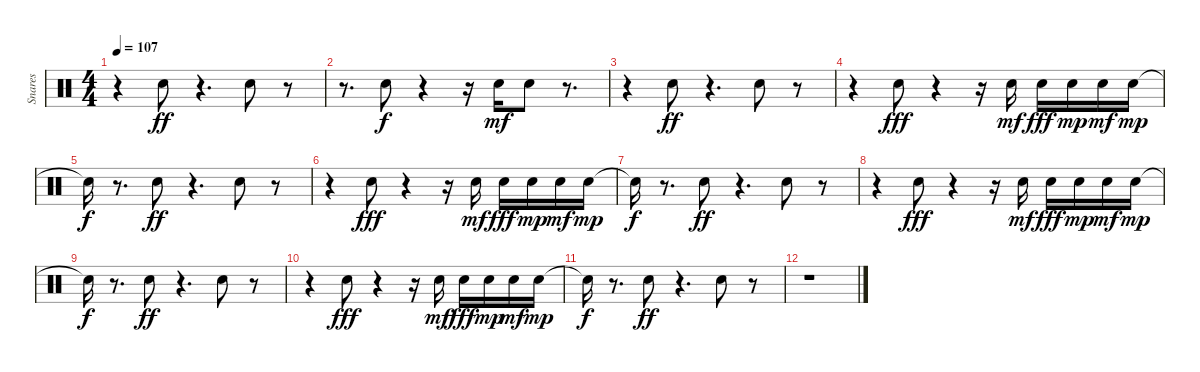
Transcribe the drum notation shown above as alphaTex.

\track ("Snares" "Snares") {instrument percussion}
\staff {score}
\articulation defaults
\ts (4 4)
\tempo 107
\clef neutral
\ks c
r.4{dy fff} "Snare (hit) 2".8{dy ff} r.4{d} "Snare (hit) 2".8 r.8 |
r.8{d} "Snare (hit) 2".8{dy f} r.4 r.16 "Snare (hit) 2".16{dy mf} "Snare (hit) 2".8 r.8{d} |
r.4 "Snare (hit) 2".8{dy ff} r.4{d} "Snare (hit) 2".8 r.8 |
r.4 "Snare (hit) 2".8{dy fff} r.4 r.16 "Snare (hit) 2".16{dy mf} "Snare (hit) 2".16{dy fff} "Snare (hit) 2".16{dy mp} "Snare (hit) 2".16{dy mf} "Snare (hit) 2".16{dy mp} |
"Snare (hit)"{t}.16{dy f} r.8{d} "Snare (hit) 2".8{dy ff} r.4{d} "Snare (hit) 2".8 r.8 |
r.4 "Snare (hit) 2".8{dy fff} r.4 r.16 "Snare (hit) 2".16{dy mf} "Snare (hit) 2".16{dy fff} "Snare (hit) 2".16{dy mp} "Snare (hit) 2".16{dy mf} "Snare (hit) 2".16{dy mp} |
"Snare (hit)"{t}.16{dy f} r.8{d} "Snare (hit) 2".8{dy ff} r.4{d} "Snare (hit) 2".8 r.8 |
r.4 "Snare (hit) 2".8{dy fff} r.4 r.16 "Snare (hit) 2".16{dy mf} "Snare (hit) 2".16{dy fff} "Snare (hit) 2".16{dy mp} "Snare (hit) 2".16{dy mf} "Snare (hit) 2".16{dy mp} |
"Snare (hit)"{t}.16{dy f} r.8{d} "Snare (hit) 2".8{dy ff} r.4{d} "Snare (hit) 2".8 r.8 |
r.4 "Snare (hit) 2".8{dy fff} r.4 r.16 "Snare (hit) 2".16{dy mf} "Snare (hit) 2".16{dy fff} "Snare (hit) 2".16{dy mp} "Snare (hit) 2".16{dy mf} "Snare (hit) 2".16{dy mp} |
"Snare (hit)"{t}.16{dy f} r.8{d} "Snare (hit) 2".8{dy ff} r.4{d} "Snare (hit) 2".8 r.8 |
r.1
